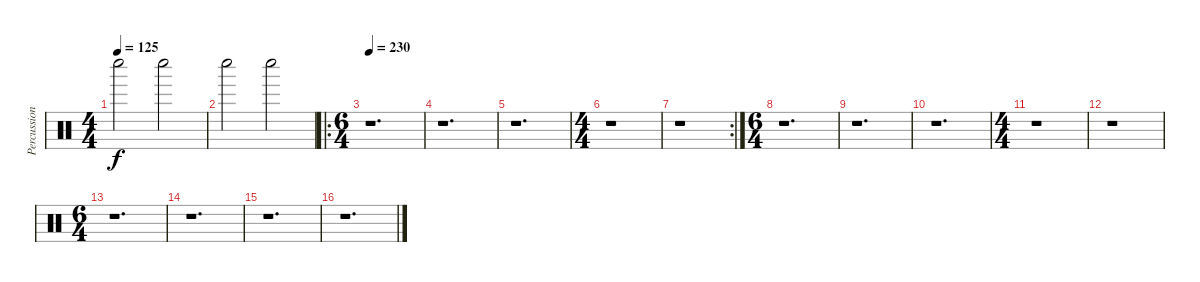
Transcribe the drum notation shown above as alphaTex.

\track ("Percussion" "Percussion") {instrument percussion}
\staff {score}
\articulation defaults
\ts (4 4)
\tempo 125
\tempo 95
\tempo 125
\clef neutral
\ks c "Whistle low (hit)".2{dy f} "Whistle low (hit)".2
|
"Whistle low (hit)".2 "Whistle low (hit)".2 |
\ro
\ts (6 4)
\tempo 230
r.1{d} |
r.1{d} |
r.1{d} |
\ts (4 4)
r.1 |
\rc 2
r.1 |
\ts (6 4)
r.1{d} |
r.1{d} |
r.1{d} |
\ts (4 4)
r.1 |
r.1 |
\ts (6 4)
r.1{d} |
r.1{d} |
r.1{d} |
r.1{d}
